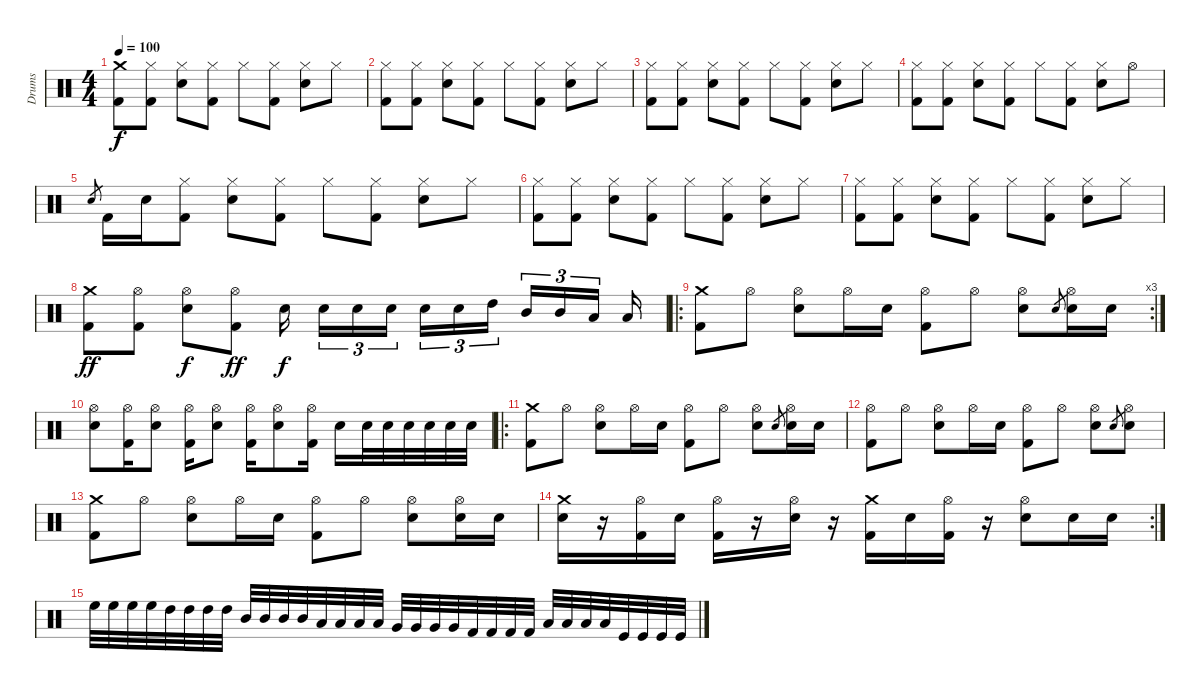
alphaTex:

\track ("Drums" "Drums") {instrument percussion}
\staff {score}
\articulation defaults
\ts (4 4)
\tempo 100
\clef neutral
\ks c
("Crash medium (hit)" "Kick (hit) 2").8{dy f} ("Hi-Hat (closed)" "Kick (hit) 2").8 ("Hi-Hat (closed)" "Snare (hit) 2").8 ("Hi-Hat (closed)" "Kick (hit) 2").8 "Hi-Hat (closed)".8 ("Hi-Hat (closed)" "Kick (hit) 2").8 ("Hi-Hat (closed)" "Snare (hit) 2").8 "Hi-Hat (closed)".8 |
("Hi-Hat (closed)" "Kick (hit) 2").8 ("Hi-Hat (closed)" "Kick (hit) 2").8 ("Hi-Hat (closed)" "Snare (hit) 2").8 ("Hi-Hat (closed)" "Kick (hit) 2").8 "Hi-Hat (closed)".8 ("Hi-Hat (closed)" "Kick (hit) 2").8 ("Hi-Hat (closed)" "Snare (hit) 2").8 "Hi-Hat (closed)".8 |
("Hi-Hat (closed)" "Kick (hit) 2").8 ("Hi-Hat (closed)" "Kick (hit) 2").8 ("Hi-Hat (closed)" "Snare (hit) 2").8 ("Hi-Hat (closed)" "Kick (hit) 2").8 "Hi-Hat (closed)".8 ("Hi-Hat (closed)" "Kick (hit) 2").8 ("Hi-Hat (closed)" "Snare (hit) 2").8 "Hi-Hat (closed)".8 |
("Hi-Hat (closed)" "Kick (hit) 2").8 ("Hi-Hat (closed)" "Kick (hit) 2").8 ("Hi-Hat (closed)" "Snare (hit) 2").8 ("Hi-Hat (closed)" "Kick (hit) 2").8 "Hi-Hat (closed)".8 ("Hi-Hat (closed)" "Kick (hit) 2").8 ("Hi-Hat (closed)" "Snare (hit) 2").8 "Hi-Hat (open)".8 |
"Snare (hit) 2".8{gr} "Kick (hit) 2".16 "Snare (hit) 2".16 ("Hi-Hat (closed)" "Kick (hit) 2").8 ("Hi-Hat (closed)" "Snare (hit) 2").8 ("Hi-Hat (closed)" "Kick (hit) 2").8 "Hi-Hat (closed)".8 ("Hi-Hat (closed)" "Kick (hit) 2").8 ("Hi-Hat (closed)" "Snare (hit) 2").8 "Hi-Hat (closed)".8 |
("Hi-Hat (closed)" "Kick (hit) 2").8 ("Hi-Hat (closed)" "Kick (hit) 2").8 ("Hi-Hat (closed)" "Snare (hit) 2").8 ("Hi-Hat (closed)" "Kick (hit) 2").8 "Hi-Hat (closed)".8 ("Hi-Hat (closed)" "Kick (hit) 2").8 ("Hi-Hat (closed)" "Snare (hit) 2").8 "Hi-Hat (closed)".8 |
("Hi-Hat (closed)" "Kick (hit) 2").8 ("Hi-Hat (closed)" "Kick (hit) 2").8 ("Hi-Hat (closed)" "Snare (hit) 2").8 ("Hi-Hat (closed)" "Kick (hit) 2").8 "Hi-Hat (closed)".8 ("Hi-Hat (closed)" "Kick (hit) 2").8 ("Hi-Hat (closed)" "Snare (hit) 2").8 "Hi-Hat (closed)".8 |
("Crash medium (hit)" "Kick (hit) 2").8{dy ff} ("Hi-Hat (open)" "Kick (hit) 2").8 ("Hi-Hat (open)" "Snare (hit) 2").8{dy f} ("Hi-Hat (open)" "Kick (hit) 2").8{dy ff} "Snare (hit) 2".16{dy f} "Snare (hit) 2".16{tu (3 2)} "Snare (hit) 2".16{tu (3 2)} "Snare (hit) 2".16{tu (3 2)} "Snare (hit) 2".16{tu (3 2)} "Snare (hit) 2".16{tu (3 2)} "High Tom (hit)".16{tu (3 2)} "Mid Tom (hit)".16{tu (3 2)} "Mid Tom (hit)".16{tu (3 2)} "Low Tom (hit)".16{tu (3 2)} "Low Tom (hit)".16 |
\ro
\rc 3
("Crash medium (hit)" "Kick (hit) 2").8 "Hi-Hat (open)".8 ("Hi-Hat (open)" "Snare (hit) 2").8 "Hi-Hat (open)".16 "Snare (hit) 2".16 ("Hi-Hat (open)" "Kick (hit) 2").8 "Hi-Hat (open)".8 ("Hi-Hat (open)" "Snare (hit) 2").8 "Snare (hit) 2".8{gr} ("Hi-Hat (open)" "Snare (hit) 2").16 "Snare (hit) 2".16 |
("Hi-Hat (open)" "Snare (hit) 2").8 ("Hi-Hat (open)" "Kick (hit) 2").16 ("Hi-Hat (open)" "Snare (hit) 2").8 ("Hi-Hat (open)" "Kick (hit) 2").16 ("Hi-Hat (open)" "Snare (hit) 2").8 ("Hi-Hat (open)" "Kick (hit) 2").16 ("Hi-Hat (open)" "Snare (hit) 2").8 ("Hi-Hat (open)" "Kick (hit) 2").16 "Snare (hit) 2".16 "Snare (hit) 2".32 "Snare (hit) 2".32 "Snare (hit) 2".32 "Snare (hit) 2".32 "Snare (hit) 2".32 "Snare (hit) 2".32 |
\ro
("Crash medium (hit)" "Kick (hit) 2").8 "Hi-Hat (open)".8 ("Hi-Hat (open)" "Snare (hit) 2").8 "Hi-Hat (open)".16 "Snare (hit) 2".16 ("Hi-Hat (open)" "Kick (hit) 2").8 "Hi-Hat (open)".8 ("Hi-Hat (open)" "Snare (hit) 2").8 "Snare (hit) 2".8{gr} ("Hi-Hat (open)" "Snare (hit) 2").16 "Snare (hit) 2".16 |
("Hi-Hat (open)" "Kick (hit) 2").8 "Hi-Hat (open)".8 ("Hi-Hat (open)" "Snare (hit) 2").8 "Hi-Hat (open)".16 "Snare (hit) 2".16 ("Hi-Hat (open)" "Kick (hit) 2").8 "Hi-Hat (open)".8 ("Hi-Hat (open)" "Snare (hit) 2").8 "Snare (hit) 2".8{gr} ("Hi-Hat (open)" "Snare (hit) 2").8 |
("Crash medium (hit)" "Kick (hit) 2").8 "Hi-Hat (open)".8 ("Hi-Hat (open)" "Snare (hit) 2").8 "Hi-Hat (open)".16 "Snare (hit) 2".16 ("Hi-Hat (open)" "Kick (hit) 2").8 "Hi-Hat (open)".8 ("Hi-Hat (open)" "Snare (hit) 2").8 ("Hi-Hat (open)" "Snare (hit) 2").16 "Snare (hit) 2".16 |
\rc 2
("Crash medium (hit)" "Snare (hit) 2").16 r.16 ("Hi-Hat (open)" "Kick (hit) 2").16 "Snare (hit) 2".16 ("Hi-Hat (open)" "Kick (hit) 2").16 r.16 ("Hi-Hat (open)" "Snare (hit) 2").16 r.16 ("Crash medium (hit)" "Kick (hit) 2").16 "Snare (hit) 2".16 ("Hi-Hat (open)" "Kick (hit) 2").16 r.16 ("Hi-Hat (open)" "Snare (hit) 2").8 "Snare (hit) 2".16 "Snare (hit) 2".16 |
"High Floor Tom (hit)".32 "High Floor Tom (hit)".32 "High Floor Tom (hit)".32 "High Floor Tom (hit)".32 "High Tom (hit)".32 "High Tom (hit)".32 "High Tom (hit)".32 "High Tom (hit)".32 "Mid Tom (hit)".32 "Mid Tom (hit)".32 "Mid Tom (hit)".32 "Mid Tom (hit)".32 "Low Tom (hit)".32 "Low Tom (hit)".32 "Low Tom (hit)".32 "Low Tom (hit)".32 "Very Low Tom (hit)".32 "Very Low Tom (hit)".32 "Very Low Tom (hit)".32 "Very Low Tom (hit)".32 "Kick (hit) 2".32 "Kick (hit) 2".32 "Kick (hit) 2".32 "Kick (hit) 2".32 "Low Floor Tom (hit)".32 "Low Floor Tom (hit)".32 "Low Floor Tom (hit)".32 "Low Floor Tom (hit)".32 "Kick (hit)".32 "Kick (hit)".32 "Kick (hit)".32 "Kick (hit)".32
